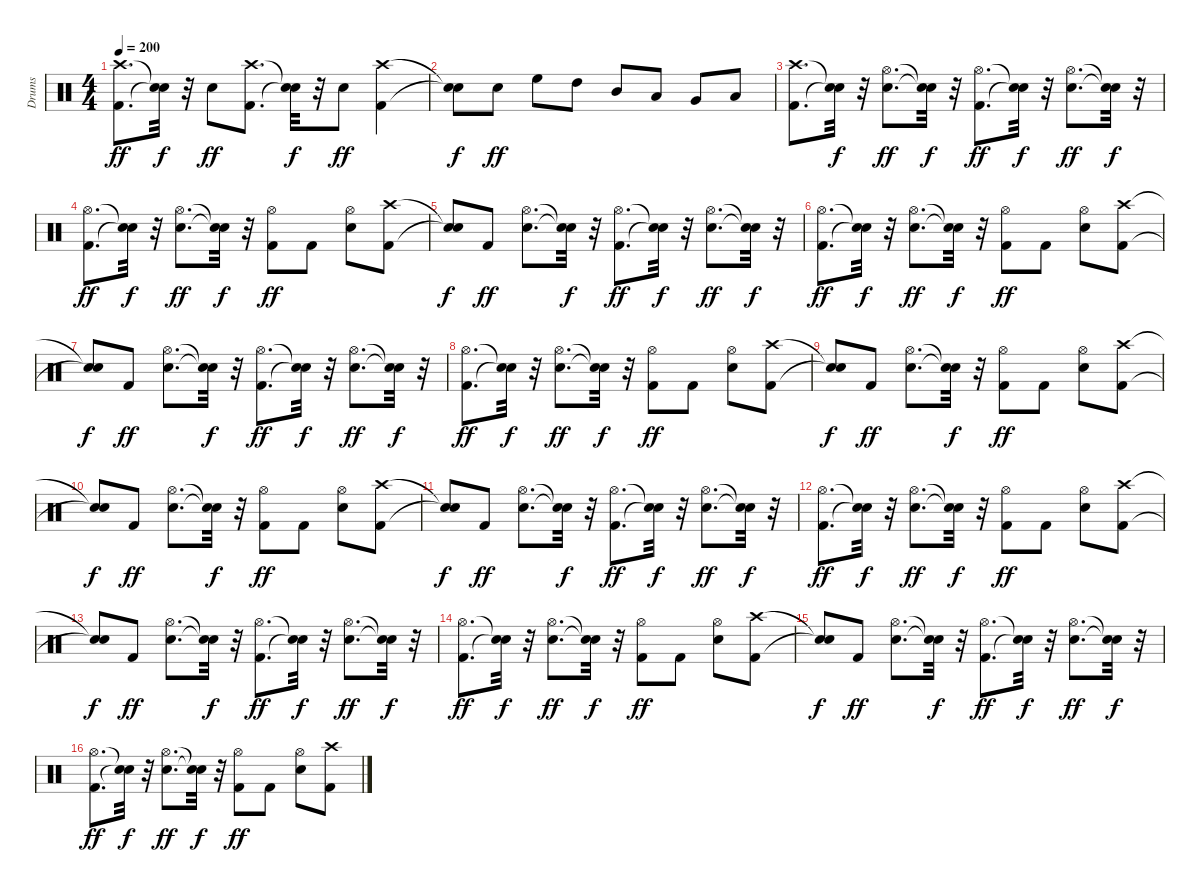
\track ("Drums" "Drums") {instrument percussion}
\staff {score}
\articulation defaults
\ts (4 4)
\tempo 200
\clef neutral
\ks c
("Kick (hit) 2" "Crash high (hit)").8{d dy ff} ("Snare (hit)"{t} "Snare (hit)"{t}).32{dy f} r.32 "Snare (hit) 2".8{dy ff} ("Kick (hit) 2" "Crash high (hit)").8{d} ("Snare (hit)"{t} "Snare (hit)"{t}).32{dy f} r.32 "Snare (hit) 2".8{dy ff} ("Kick (hit) 2" "Crash high (hit)").4 |
("Snare (hit)"{t} "Snare (hit)"{t}).8{dy f} "Snare (hit) 2".8{dy ff} "High Floor Tom (hit)".8 "High Tom (hit)".8 "Mid Tom (hit)".8 "Low Tom (hit)".8 "Very Low Tom (hit)".8 "Low Floor Tom (hit)".8 |
("Kick (hit) 2" "Crash high (hit)").8{d} ("Snare (hit)"{t} "Snare (hit)"{t}).32{dy f} r.32 ("Snare (hit) 2" "Hi-Hat (open)").8{d dy ff} ("Snare (hit)"{t} "Snare (hit)"{t}).32{dy f} r.32 ("Kick (hit) 2" "Hi-Hat (open)").8{d dy ff} ("Snare (hit)"{t} "Snare (hit)"{t}).32{dy f} r.32 ("Snare (hit) 2" "Hi-Hat (open)").8{d dy ff} ("Snare (hit)"{t} "Snare (hit)"{t}).32{dy f} r.32 |
("Kick (hit) 2" "Hi-Hat (open)").8{d dy ff} ("Snare (hit)"{t} "Snare (hit)"{t}).32{dy f} r.32 ("Snare (hit) 2" "Hi-Hat (open)").8{d dy ff} ("Snare (hit)"{t} "Snare (hit)"{t}).32{dy f} r.32 ("Kick (hit) 2" "Hi-Hat (open)").8{dy ff} "Kick (hit) 2".8 ("Snare (hit) 2" "Hi-Hat (open)").8 ("Kick (hit) 2" "Crash high (hit)").8 |
("Snare (hit)"{t} "Snare (hit)"{t}).8{dy f} "Kick (hit) 2".8{dy ff} ("Snare (hit) 2" "Hi-Hat (open)").8{d} ("Snare (hit)"{t} "Snare (hit)"{t}).32{dy f} r.32 ("Kick (hit) 2" "Hi-Hat (open)").8{d dy ff} ("Snare (hit)"{t} "Snare (hit)"{t}).32{dy f} r.32 ("Snare (hit) 2" "Hi-Hat (open)").8{d dy ff} ("Snare (hit)"{t} "Snare (hit)"{t}).32{dy f} r.32 |
("Kick (hit) 2" "Hi-Hat (open)").8{d dy ff} ("Snare (hit)"{t} "Snare (hit)"{t}).32{dy f} r.32 ("Snare (hit) 2" "Hi-Hat (open)").8{d dy ff} ("Snare (hit)"{t} "Snare (hit)"{t}).32{dy f} r.32 ("Kick (hit) 2" "Hi-Hat (open)").8{dy ff} "Kick (hit) 2".8 ("Snare (hit) 2" "Hi-Hat (open)").8 ("Kick (hit) 2" "Crash high (hit)").8 |
("Snare (hit)"{t} "Snare (hit)"{t}).8{dy f} "Kick (hit) 2".8{dy ff} ("Snare (hit) 2" "Hi-Hat (open)").8{d} ("Snare (hit)"{t} "Snare (hit)"{t}).32{dy f} r.32 ("Kick (hit) 2" "Hi-Hat (open)").8{d dy ff} ("Snare (hit)"{t} "Snare (hit)"{t}).32{dy f} r.32 ("Snare (hit) 2" "Hi-Hat (open)").8{d dy ff} ("Snare (hit)"{t} "Snare (hit)"{t}).32{dy f} r.32 |
("Kick (hit) 2" "Hi-Hat (open)").8{d dy ff} ("Snare (hit)"{t} "Snare (hit)"{t}).32{dy f} r.32 ("Snare (hit) 2" "Hi-Hat (open)").8{d dy ff} ("Snare (hit)"{t} "Snare (hit)"{t}).32{dy f} r.32 ("Kick (hit) 2" "Hi-Hat (open)").8{dy ff} "Kick (hit) 2".8 ("Snare (hit) 2" "Hi-Hat (open)").8 ("Kick (hit) 2" "Crash high (hit)").8 |
("Snare (hit)"{t} "Snare (hit)"{t}).8{dy f} "Kick (hit) 2".8{dy ff} ("Snare (hit) 2" "Hi-Hat (open)").8{d} ("Snare (hit)"{t} "Snare (hit)"{t}).32{dy f} r.32 ("Kick (hit) 2" "Hi-Hat (open)").8{dy ff} "Kick (hit) 2".8 ("Snare (hit) 2" "Hi-Hat (open)").8 ("Kick (hit) 2" "Crash high (hit)").8 |
("Snare (hit)"{t} "Snare (hit)"{t}).8{dy f} "Kick (hit) 2".8{dy ff} ("Snare (hit) 2" "Hi-Hat (open)").8{d} ("Snare (hit)"{t} "Snare (hit)"{t}).32{dy f} r.32 ("Kick (hit) 2" "Hi-Hat (open)").8{dy ff} "Kick (hit) 2".8 ("Snare (hit) 2" "Hi-Hat (open)").8 ("Kick (hit) 2" "Crash high (hit)").8 |
("Snare (hit)"{t} "Snare (hit)"{t}).8{dy f} "Kick (hit) 2".8{dy ff} ("Snare (hit) 2" "Hi-Hat (open)").8{d} ("Snare (hit)"{t} "Snare (hit)"{t}).32{dy f} r.32 ("Kick (hit) 2" "Hi-Hat (open)").8{d dy ff} ("Snare (hit)"{t} "Snare (hit)"{t}).32{dy f} r.32 ("Snare (hit) 2" "Hi-Hat (open)").8{d dy ff} ("Snare (hit)"{t} "Snare (hit)"{t}).32{dy f} r.32 |
("Kick (hit) 2" "Hi-Hat (open)").8{d dy ff} ("Snare (hit)"{t} "Snare (hit)"{t}).32{dy f} r.32 ("Snare (hit) 2" "Hi-Hat (open)").8{d dy ff} ("Snare (hit)"{t} "Snare (hit)"{t}).32{dy f} r.32 ("Kick (hit) 2" "Hi-Hat (open)").8{dy ff} "Kick (hit) 2".8 ("Snare (hit) 2" "Hi-Hat (open)").8 ("Kick (hit) 2" "Crash high (hit)").8 |
("Snare (hit)"{t} "Snare (hit)"{t}).8{dy f} "Kick (hit) 2".8{dy ff} ("Snare (hit) 2" "Hi-Hat (open)").8{d} ("Snare (hit)"{t} "Snare (hit)"{t}).32{dy f} r.32 ("Kick (hit) 2" "Hi-Hat (open)").8{d dy ff} ("Snare (hit)"{t} "Snare (hit)"{t}).32{dy f} r.32 ("Snare (hit) 2" "Hi-Hat (open)").8{d dy ff} ("Snare (hit)"{t} "Snare (hit)"{t}).32{dy f} r.32 |
("Kick (hit) 2" "Hi-Hat (open)").8{d dy ff} ("Snare (hit)"{t} "Snare (hit)"{t}).32{dy f} r.32 ("Snare (hit) 2" "Hi-Hat (open)").8{d dy ff} ("Snare (hit)"{t} "Snare (hit)"{t}).32{dy f} r.32 ("Kick (hit) 2" "Hi-Hat (open)").8{dy ff} "Kick (hit) 2".8 ("Snare (hit) 2" "Hi-Hat (open)").8 ("Kick (hit) 2" "Crash high (hit)").8 |
("Snare (hit)"{t} "Snare (hit)"{t}).8{dy f} "Kick (hit) 2".8{dy ff} ("Snare (hit) 2" "Hi-Hat (open)").8{d} ("Snare (hit)"{t} "Snare (hit)"{t}).32{dy f} r.32 ("Kick (hit) 2" "Hi-Hat (open)").8{d dy ff} ("Snare (hit)"{t} "Snare (hit)"{t}).32{dy f} r.32 ("Snare (hit) 2" "Hi-Hat (open)").8{d dy ff} ("Snare (hit)"{t} "Snare (hit)"{t}).32{dy f} r.32 |
("Kick (hit) 2" "Hi-Hat (open)").8{d dy ff} ("Snare (hit)"{t} "Snare (hit)"{t}).32{dy f} r.32 ("Snare (hit) 2" "Hi-Hat (open)").8{d dy ff} ("Snare (hit)"{t} "Snare (hit)"{t}).32{dy f} r.32 ("Kick (hit) 2" "Hi-Hat (open)").8{dy ff} "Kick (hit) 2".8 ("Snare (hit) 2" "Hi-Hat (open)").8 ("Kick (hit) 2" "Crash high (hit)").8
